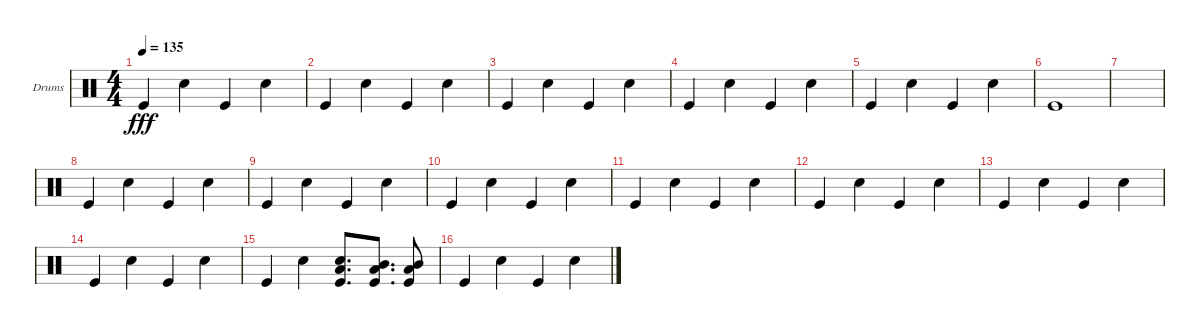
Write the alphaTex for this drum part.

\defaultSystemsLayout 4
\bracketExtendMode groupsimilarinstruments
\firstSystemTrackNameOrientation horizontal
\otherSystemsTrackNameOrientation horizontal
\track ("Helders" "Drums") {instrument percussion}
\staff {score}
\articulation defaults
\ts (4 4)
\tempo 135
\clef neutral
\ks c "Kick (hit)".4{dy fff} "Snare (hit) 2".4 "Kick (hit)".4 "Snare (hit) 2".4
|
"Kick (hit)".4 "Snare (hit) 2".4 "Kick (hit)".4 "Snare (hit) 2".4 |
"Kick (hit)".4 "Snare (hit) 2".4 "Kick (hit)".4 "Snare (hit) 2".4 |
"Kick (hit)".4 "Snare (hit) 2".4 "Kick (hit)".4 "Snare (hit) 2".4 |
"Kick (hit)".4 "Snare (hit) 2".4 "Kick (hit)".4 "Snare (hit) 2".4 |
"Kick (hit)".1 |
|
"Kick (hit)".4 "Snare (hit) 2".4 "Kick (hit)".4 "Snare (hit) 2".4 |
"Kick (hit)".4 "Snare (hit) 2".4 "Kick (hit)".4 "Snare (hit) 2".4 |
"Kick (hit)".4 "Snare (hit) 2".4 "Kick (hit)".4 "Snare (hit) 2".4 |
"Kick (hit)".4 "Snare (hit) 2".4 "Kick (hit)".4 "Snare (hit) 2".4 |
"Kick (hit)".4 "Snare (hit) 2".4 "Kick (hit)".4 "Snare (hit) 2".4 |
"Kick (hit)".4 "Snare (hit) 2".4 "Kick (hit)".4 "Snare (hit) 2".4 |
"Kick (hit)".4 "Snare (hit) 2".4 "Kick (hit)".4 "Snare (hit) 2".4 |
"Kick (hit)".4 "Snare (hit) 2".4 ("Kick (hit)" "Snare (hit) 2" "Low Tom (hit)").8{d} ("Kick (hit)" "Low Tom (hit)" "Mid Tom (hit)").8{d} ("Kick (hit)" "Mid Tom (hit)" "Low Tom (hit)").8 |
"Kick (hit)".4 "Snare (hit) 2".4 "Kick (hit)".4 "Snare (hit) 2".4
